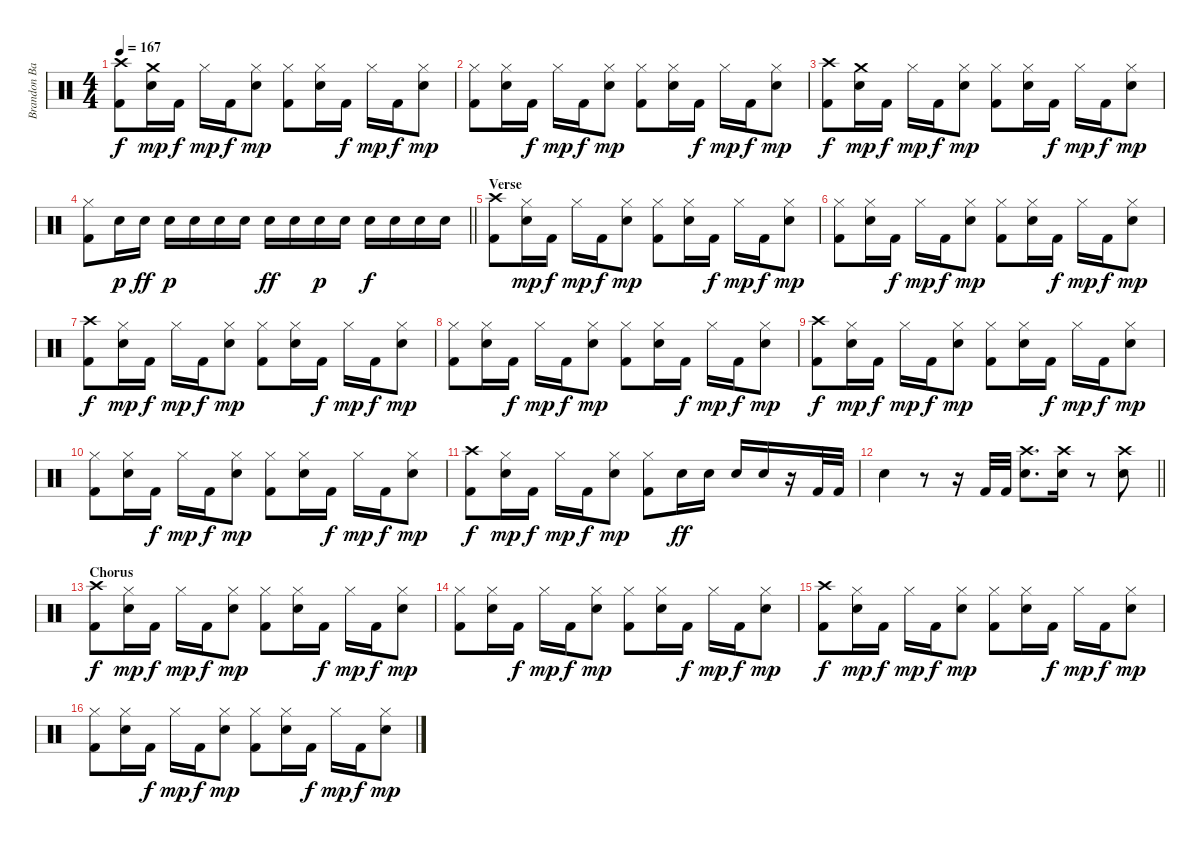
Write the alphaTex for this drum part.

\track ("Brandon Barnes" "Brandon Ba") {instrument percussion}
\staff {score}
\articulation defaults
\ts (4 4)
\tempo 167
\clef neutral
\ks c
("Kick (hit) 2" "Crash high (hit)").8{dy f} ("Snare (hit) 2" "Crash medium (hit)").16{dy mp} "Kick (hit) 2".16{dy f} "Hi-Hat (closed)".16{dy mp} "Kick (hit) 2".16{dy f} ("Snare (hit) 2" "Hi-Hat (closed)").8{dy mp} ("Kick (hit) 2" "Hi-Hat (closed)").8 ("Snare (hit) 2" "Hi-Hat (closed)").16 "Kick (hit) 2".16{dy f} "Hi-Hat (closed)".16{dy mp} "Kick (hit) 2".16{dy f} ("Snare (hit) 2" "Hi-Hat (closed)").8{dy mp} |
("Kick (hit) 2" "Hi-Hat (closed)").8 ("Snare (hit) 2" "Hi-Hat (closed)").16 "Kick (hit) 2".16{dy f} "Hi-Hat (closed)".16{dy mp} "Kick (hit) 2".16{dy f} ("Snare (hit) 2" "Hi-Hat (closed)").8{dy mp} ("Kick (hit) 2" "Hi-Hat (closed)").8 ("Snare (hit) 2" "Hi-Hat (closed)").16 "Kick (hit) 2".16{dy f} "Hi-Hat (closed)".16{dy mp} "Kick (hit) 2".16{dy f} ("Snare (hit) 2" "Hi-Hat (closed)").8{dy mp} |
("Kick (hit) 2" "Crash high (hit)").8{dy f} ("Snare (hit) 2" "Crash medium (hit)").16{dy mp} "Kick (hit) 2".16{dy f} "Hi-Hat (closed)".16{dy mp} "Kick (hit) 2".16{dy f} ("Snare (hit) 2" "Hi-Hat (closed)").8{dy mp} ("Kick (hit) 2" "Hi-Hat (closed)").8 ("Snare (hit) 2" "Hi-Hat (closed)").16 "Kick (hit) 2".16{dy f} "Hi-Hat (closed)".16{dy mp} "Kick (hit) 2".16{dy f} ("Snare (hit) 2" "Hi-Hat (closed)").8{dy mp} |
\barLineRight lightlight
("Kick (hit) 2" "Hi-Hat (closed)").8 "Snare (hit) 2".16{dy p} "Snare (hit) 2".16{dy ff} "Snare (hit) 2".16{dy p} "Snare (hit) 2".16 "Snare (hit) 2".16 "Snare (hit) 2".16 "Snare (hit) 2".16{dy ff} "Snare (hit) 2".16 "Snare (hit) 2".16{dy p} "Snare (hit) 2".16 "Snare (hit) 2".16{dy f} "Snare (hit) 2".16 "Snare (hit) 2".16 "Snare (hit) 2".16 |
\section ("" "Verse")
("Kick (hit) 2" "Crash high (hit)").8 ("Snare (hit) 2" "Hi-Hat (closed)").16{dy mp} "Kick (hit) 2".16{dy f} "Hi-Hat (closed)".16{dy mp} "Kick (hit) 2".16{dy f} ("Snare (hit) 2" "Hi-Hat (closed)").8{dy mp} ("Kick (hit) 2" "Hi-Hat (closed)").8 ("Snare (hit) 2" "Hi-Hat (closed)").16 "Kick (hit) 2".16{dy f} "Hi-Hat (closed)".16{dy mp} "Kick (hit) 2".16{dy f} ("Snare (hit) 2" "Hi-Hat (closed)").8{dy mp} |
("Kick (hit) 2" "Hi-Hat (closed)").8 ("Snare (hit) 2" "Hi-Hat (closed)").16 "Kick (hit) 2".16{dy f} "Hi-Hat (closed)".16{dy mp} "Kick (hit) 2".16{dy f} ("Snare (hit) 2" "Hi-Hat (closed)").8{dy mp} ("Kick (hit) 2" "Hi-Hat (closed)").8 ("Snare (hit) 2" "Hi-Hat (closed)").16 "Kick (hit) 2".16{dy f} "Hi-Hat (closed)".16{dy mp} "Kick (hit) 2".16{dy f} ("Snare (hit) 2" "Hi-Hat (closed)").8{dy mp} |
("Kick (hit) 2" "Crash high (hit)").8{dy f} ("Snare (hit) 2" "Hi-Hat (closed)").16{dy mp} "Kick (hit) 2".16{dy f} "Hi-Hat (closed)".16{dy mp} "Kick (hit) 2".16{dy f} ("Snare (hit) 2" "Hi-Hat (closed)").8{dy mp} ("Kick (hit) 2" "Hi-Hat (closed)").8 ("Snare (hit) 2" "Hi-Hat (closed)").16 "Kick (hit) 2".16{dy f} "Hi-Hat (closed)".16{dy mp} "Kick (hit) 2".16{dy f} ("Snare (hit) 2" "Hi-Hat (closed)").8{dy mp} |
("Kick (hit) 2" "Hi-Hat (closed)").8 ("Snare (hit) 2" "Hi-Hat (closed)").16 "Kick (hit) 2".16{dy f} "Hi-Hat (closed)".16{dy mp} "Kick (hit) 2".16{dy f} ("Snare (hit) 2" "Hi-Hat (closed)").8{dy mp} ("Kick (hit) 2" "Hi-Hat (closed)").8 ("Snare (hit) 2" "Hi-Hat (closed)").16 "Kick (hit) 2".16{dy f} "Hi-Hat (closed)".16{dy mp} "Kick (hit) 2".16{dy f} ("Snare (hit) 2" "Hi-Hat (closed)").8{dy mp} |
("Kick (hit) 2" "Crash high (hit)").8{dy f} ("Snare (hit) 2" "Hi-Hat (closed)").16{dy mp} "Kick (hit) 2".16{dy f} "Hi-Hat (closed)".16{dy mp} "Kick (hit) 2".16{dy f} ("Snare (hit) 2" "Hi-Hat (closed)").8{dy mp} ("Kick (hit) 2" "Hi-Hat (closed)").8 ("Snare (hit) 2" "Hi-Hat (closed)").16 "Kick (hit) 2".16{dy f} "Hi-Hat (closed)".16{dy mp} "Kick (hit) 2".16{dy f} ("Snare (hit) 2" "Hi-Hat (closed)").8{dy mp} |
("Kick (hit) 2" "Hi-Hat (closed)").8 ("Snare (hit) 2" "Hi-Hat (closed)").16 "Kick (hit) 2".16{dy f} "Hi-Hat (closed)".16{dy mp} "Kick (hit) 2".16{dy f} ("Snare (hit) 2" "Hi-Hat (closed)").8{dy mp} ("Kick (hit) 2" "Hi-Hat (closed)").8 ("Snare (hit) 2" "Hi-Hat (closed)").16 "Kick (hit) 2".16{dy f} "Hi-Hat (closed)".16{dy mp} "Kick (hit) 2".16{dy f} ("Snare (hit) 2" "Hi-Hat (closed)").8{dy mp} |
("Kick (hit) 2" "Crash high (hit)").8{dy f} ("Snare (hit) 2" "Hi-Hat (closed)").16{dy mp} "Kick (hit) 2".16{dy f} "Hi-Hat (closed)".16{dy mp} "Kick (hit) 2".16{dy f} ("Snare (hit) 2" "Hi-Hat (closed)").8{dy mp} ("Kick (hit) 2" "Hi-Hat (closed)").8 "Snare (hit) 2".16{dy ff} "Snare (hit) 2".16 "Snare (hit) 2".16 "Snare (hit) 2".16 r.16 "Kick (hit) 2".32 "Kick (hit) 2".32 |
\barLineRight lightlight "Snare (hit) 2".4
r.8 r.16 "Kick (hit) 2".32 "Kick (hit) 2".32 ("Snare (hit) 2" "Crash high (hit)").8{d} ("Snare (hit) 2" "Crash high (hit)").16 r.8 ("Snare (hit) 2" "Crash high (hit)").8 |
\section ("" "Chorus")
("Kick (hit) 2" "Crash high (hit)").8{dy f} ("Snare (hit) 2" "Hi-Hat (closed)").16{dy mp} "Kick (hit) 2".16{dy f} "Hi-Hat (closed)".16{dy mp} "Kick (hit) 2".16{dy f} ("Snare (hit) 2" "Hi-Hat (closed)").8{dy mp} ("Kick (hit) 2" "Hi-Hat (closed)").8 ("Snare (hit) 2" "Hi-Hat (closed)").16 "Kick (hit) 2".16{dy f} "Hi-Hat (closed)".16{dy mp} "Kick (hit) 2".16{dy f} ("Snare (hit) 2" "Hi-Hat (closed)").8{dy mp} |
("Kick (hit) 2" "Hi-Hat (closed)").8 ("Snare (hit) 2" "Hi-Hat (closed)").16 "Kick (hit) 2".16{dy f} "Hi-Hat (closed)".16{dy mp} "Kick (hit) 2".16{dy f} ("Snare (hit) 2" "Hi-Hat (closed)").8{dy mp} ("Kick (hit) 2" "Hi-Hat (closed)").8 ("Snare (hit) 2" "Hi-Hat (closed)").16 "Kick (hit) 2".16{dy f} "Hi-Hat (closed)".16{dy mp} "Kick (hit) 2".16{dy f} ("Snare (hit) 2" "Hi-Hat (closed)").8{dy mp} |
("Kick (hit) 2" "Crash high (hit)").8{dy f} ("Snare (hit) 2" "Hi-Hat (closed)").16{dy mp} "Kick (hit) 2".16{dy f} "Hi-Hat (closed)".16{dy mp} "Kick (hit) 2".16{dy f} ("Snare (hit) 2" "Hi-Hat (closed)").8{dy mp} ("Kick (hit) 2" "Hi-Hat (closed)").8 ("Snare (hit) 2" "Hi-Hat (closed)").16 "Kick (hit) 2".16{dy f} "Hi-Hat (closed)".16{dy mp} "Kick (hit) 2".16{dy f} ("Snare (hit) 2" "Hi-Hat (closed)").8{dy mp} |
("Kick (hit) 2" "Hi-Hat (closed)").8 ("Snare (hit) 2" "Hi-Hat (closed)").16 "Kick (hit) 2".16{dy f} "Hi-Hat (closed)".16{dy mp} "Kick (hit) 2".16{dy f} ("Snare (hit) 2" "Hi-Hat (closed)").8{dy mp} ("Kick (hit) 2" "Hi-Hat (closed)").8 ("Snare (hit) 2" "Hi-Hat (closed)").16 "Kick (hit) 2".16{dy f} "Hi-Hat (closed)".16{dy mp} "Kick (hit) 2".16{dy f} ("Snare (hit) 2" "Hi-Hat (closed)").8{dy mp}
